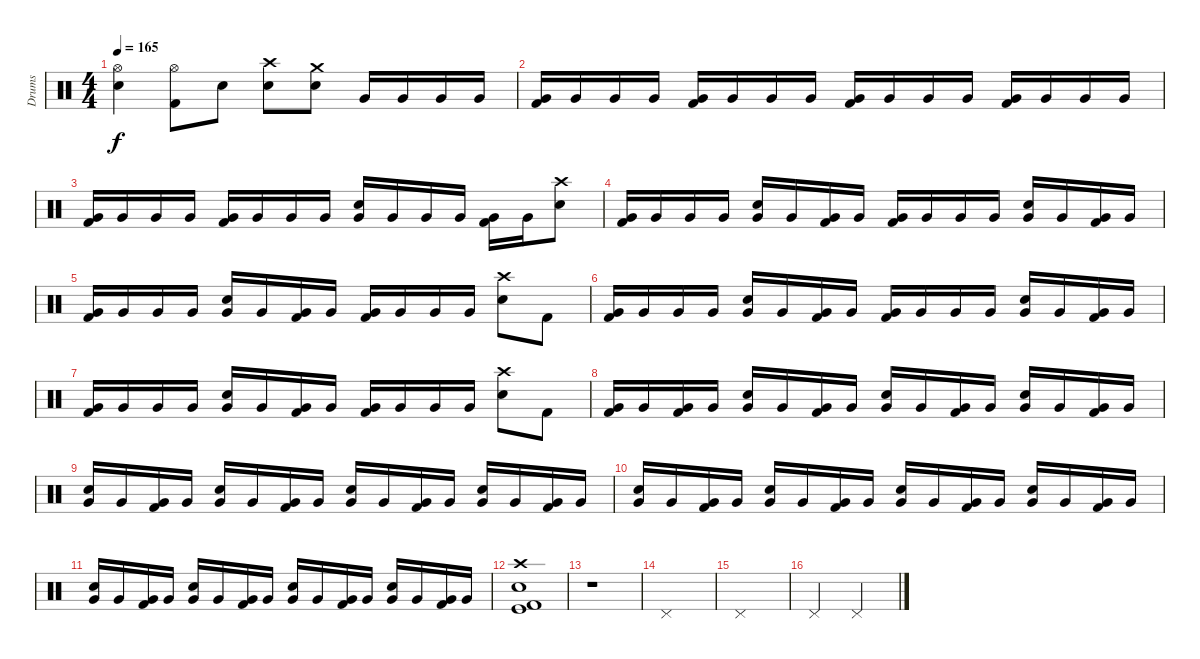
\track ("Drums" "Drums") {instrument percussion}
\staff {score}
\articulation defaults
\ts (4 4)
\tempo 165
\clef neutral
\ks c
("Hi-Hat (open)" "Snare (hit) 2").4{dy f} ("Hi-Hat (open)" "Kick (hit) 2").8 "Snare (hit) 2".8 ("Crash high (hit)" "Snare (hit) 2").8 ("Crash medium (hit)" "Snare (hit) 2").8 "Very Low Tom (hit)".16 "Very Low Tom (hit)".16 "Very Low Tom (hit)".16 "Very Low Tom (hit)".16 |
("Very Low Tom (hit)" "Kick (hit) 2").16 "Very Low Tom (hit)".16 "Very Low Tom (hit)".16 "Very Low Tom (hit)".16 ("Very Low Tom (hit)" "Kick (hit) 2").16 "Very Low Tom (hit)".16 "Very Low Tom (hit)".16 "Very Low Tom (hit)".16 ("Very Low Tom (hit)" "Kick (hit) 2").16 "Very Low Tom (hit)".16 "Very Low Tom (hit)".16 "Very Low Tom (hit)".16 ("Very Low Tom (hit)" "Kick (hit) 2").16 "Very Low Tom (hit)".16 "Very Low Tom (hit)".16 "Very Low Tom (hit)".16 |
("Very Low Tom (hit)" "Kick (hit) 2").16 "Very Low Tom (hit)".16 "Very Low Tom (hit)".16 "Very Low Tom (hit)".16 ("Very Low Tom (hit)" "Kick (hit) 2").16 "Very Low Tom (hit)".16 "Very Low Tom (hit)".16 "Very Low Tom (hit)".16 ("Very Low Tom (hit)" "Snare (hit) 2").16 "Very Low Tom (hit)".16 "Very Low Tom (hit)".16 "Very Low Tom (hit)".16 ("Very Low Tom (hit)" "Kick (hit) 2").16 "Very Low Tom (hit)".16 ("Crash high (hit)" "Snare (hit) 2").8 |
("Very Low Tom (hit)" "Kick (hit) 2").16 "Very Low Tom (hit)".16 "Very Low Tom (hit)".16 "Very Low Tom (hit)".16 ("Very Low Tom (hit)" "Snare (hit) 2").16 "Very Low Tom (hit)".16 ("Very Low Tom (hit)" "Kick (hit) 2").16 "Very Low Tom (hit)".16 ("Very Low Tom (hit)" "Kick (hit) 2").16 "Very Low Tom (hit)".16 "Very Low Tom (hit)".16 "Very Low Tom (hit)".16 ("Very Low Tom (hit)" "Snare (hit) 2").16 "Very Low Tom (hit)".16 ("Very Low Tom (hit)" "Kick (hit) 2").16 "Very Low Tom (hit)".16 |
("Very Low Tom (hit)" "Kick (hit) 2").16 "Very Low Tom (hit)".16 "Very Low Tom (hit)".16 "Very Low Tom (hit)".16 ("Very Low Tom (hit)" "Snare (hit) 2").16 "Very Low Tom (hit)".16 ("Very Low Tom (hit)" "Kick (hit) 2").16 "Very Low Tom (hit)".16 ("Very Low Tom (hit)" "Kick (hit) 2").16 "Very Low Tom (hit)".16 "Very Low Tom (hit)".16 "Very Low Tom (hit)".16 ("Crash high (hit)" "Snare (hit) 2").8 "Kick (hit) 2".8 |
("Very Low Tom (hit)" "Kick (hit) 2").16 "Very Low Tom (hit)".16 "Very Low Tom (hit)".16 "Very Low Tom (hit)".16 ("Very Low Tom (hit)" "Snare (hit) 2").16 "Very Low Tom (hit)".16 ("Very Low Tom (hit)" "Kick (hit) 2").16 "Very Low Tom (hit)".16 ("Very Low Tom (hit)" "Kick (hit) 2").16 "Very Low Tom (hit)".16 "Very Low Tom (hit)".16 "Very Low Tom (hit)".16 ("Very Low Tom (hit)" "Snare (hit) 2").16 "Very Low Tom (hit)".16 ("Very Low Tom (hit)" "Kick (hit) 2").16 "Very Low Tom (hit)".16 |
("Very Low Tom (hit)" "Kick (hit) 2").16 "Very Low Tom (hit)".16 "Very Low Tom (hit)".16 "Very Low Tom (hit)".16 ("Very Low Tom (hit)" "Snare (hit) 2").16 "Very Low Tom (hit)".16 ("Very Low Tom (hit)" "Kick (hit) 2").16 "Very Low Tom (hit)".16 ("Very Low Tom (hit)" "Kick (hit) 2").16 "Very Low Tom (hit)".16 "Very Low Tom (hit)".16 "Very Low Tom (hit)".16 ("Crash high (hit)" "Snare (hit) 2").8 "Kick (hit) 2".8 |
("Very Low Tom (hit)" "Kick (hit) 2").16 "Very Low Tom (hit)".16 ("Very Low Tom (hit)" "Kick (hit) 2").16 "Very Low Tom (hit)".16 ("Very Low Tom (hit)" "Snare (hit) 2").16 "Very Low Tom (hit)".16 ("Very Low Tom (hit)" "Kick (hit) 2").16 "Very Low Tom (hit)".16 ("Very Low Tom (hit)" "Snare (hit) 2").16 "Very Low Tom (hit)".16 ("Very Low Tom (hit)" "Kick (hit) 2").16 "Very Low Tom (hit)".16 ("Very Low Tom (hit)" "Snare (hit) 2").16 "Very Low Tom (hit)".16 ("Very Low Tom (hit)" "Kick (hit) 2").16 "Very Low Tom (hit)".16 |
("Very Low Tom (hit)" "Snare (hit) 2").16 "Very Low Tom (hit)".16 ("Very Low Tom (hit)" "Kick (hit) 2").16 "Very Low Tom (hit)".16 ("Very Low Tom (hit)" "Snare (hit) 2").16 "Very Low Tom (hit)".16 ("Very Low Tom (hit)" "Kick (hit) 2").16 "Very Low Tom (hit)".16 ("Very Low Tom (hit)" "Snare (hit) 2").16 "Very Low Tom (hit)".16 ("Very Low Tom (hit)" "Kick (hit) 2").16 "Very Low Tom (hit)".16 ("Very Low Tom (hit)" "Snare (hit) 2").16 "Very Low Tom (hit)".16 ("Very Low Tom (hit)" "Kick (hit) 2").16 "Very Low Tom (hit)".16 |
("Very Low Tom (hit)" "Snare (hit) 2").16 "Very Low Tom (hit)".16 ("Very Low Tom (hit)" "Kick (hit) 2").16 "Very Low Tom (hit)".16 ("Very Low Tom (hit)" "Snare (hit) 2").16 "Very Low Tom (hit)".16 ("Very Low Tom (hit)" "Kick (hit) 2").16 "Very Low Tom (hit)".16 ("Very Low Tom (hit)" "Snare (hit) 2").16 "Very Low Tom (hit)".16 ("Very Low Tom (hit)" "Kick (hit) 2").16 "Very Low Tom (hit)".16 ("Very Low Tom (hit)" "Snare (hit) 2").16 "Very Low Tom (hit)".16 ("Very Low Tom (hit)" "Kick (hit) 2").16 "Very Low Tom (hit)".16 |
("Very Low Tom (hit)" "Snare (hit) 2").16 "Very Low Tom (hit)".16 ("Very Low Tom (hit)" "Kick (hit) 2").16 "Very Low Tom (hit)".16 ("Very Low Tom (hit)" "Snare (hit) 2").16 "Very Low Tom (hit)".16 ("Very Low Tom (hit)" "Kick (hit) 2").16 "Very Low Tom (hit)".16 ("Very Low Tom (hit)" "Snare (hit) 2").16 "Very Low Tom (hit)".16 ("Very Low Tom (hit)" "Kick (hit) 2").16 "Very Low Tom (hit)".16 ("Very Low Tom (hit)" "Snare (hit) 2").16 "Very Low Tom (hit)".16 ("Very Low Tom (hit)" "Kick (hit) 2").16 "Very Low Tom (hit)".16 |
("Crash high (hit)" "Snare (hit) 2" "Kick (hit)" "Kick (hit) 2").1 |
r.1 |
"Pedal Hi-Hat (hit)".1 |
"Pedal Hi-Hat (hit)".1 |
"Pedal Hi-Hat (hit)".2 "Pedal Hi-Hat (hit)".2
